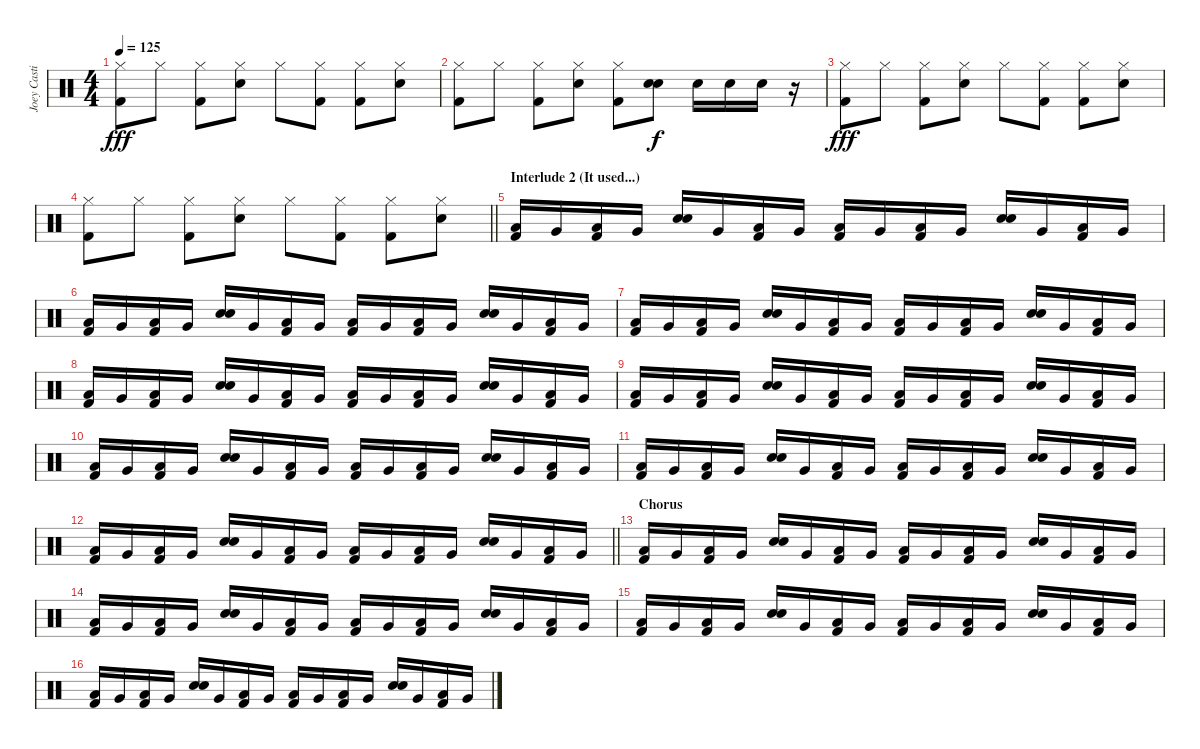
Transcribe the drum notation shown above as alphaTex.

\track ("Joey Castillo" "Joey Casti") {instrument percussion}
\staff {score}
\articulation defaults
\ts (4 4)
\tempo 125
\clef neutral
\ks c
("Hi-Hat (closed)" "Kick (hit) 2").8{dy fff} "Hi-Hat (closed)".8 ("Hi-Hat (closed)" "Kick (hit) 2").8 ("Hi-Hat (closed)" "Electric Snare (hit)").8 "Hi-Hat (closed)".8 ("Hi-Hat (closed)" "Kick (hit) 2").8 ("Hi-Hat (closed)" "Kick (hit) 2").8 ("Hi-Hat (closed)" "Electric Snare (hit)").8 |
("Hi-Hat (closed)" "Kick (hit) 2").8 "Hi-Hat (closed)".8 ("Hi-Hat (closed)" "Kick (hit) 2").8 ("Hi-Hat (closed)" "Electric Snare (hit)").8 ("Hi-Hat (closed)" "Kick (hit) 2").8 ("Electric Snare (hit)" "Electric Snare (hit)").8{bu 240 dy f} "Electric Snare (hit)".16 "Electric Snare (hit)".16 "Electric Snare (hit)".16 r.16 |
("Hi-Hat (closed)" "Kick (hit) 2").8{dy fff} "Hi-Hat (closed)".8 ("Hi-Hat (closed)" "Kick (hit) 2").8 ("Hi-Hat (closed)" "Electric Snare (hit)").8 "Hi-Hat (closed)".8 ("Hi-Hat (closed)" "Kick (hit) 2").8 ("Hi-Hat (closed)" "Kick (hit) 2").8 ("Hi-Hat (closed)" "Electric Snare (hit)").8 |
\barLineRight lightlight
("Hi-Hat (closed)" "Kick (hit) 2").8 "Hi-Hat (closed)".8 ("Hi-Hat (closed)" "Kick (hit) 2").8 ("Hi-Hat (closed)" "Electric Snare (hit)").8 "Hi-Hat (closed)".8 ("Hi-Hat (closed)" "Kick (hit) 2").8 ("Hi-Hat (closed)" "Kick (hit) 2").8 ("Hi-Hat (closed)" "Electric Snare (hit)").8 |
\section ("" "Interlude 2 (It used...)")
("Low Tom (hit)" "Kick (hit) 2").16 "Very Low Tom (hit)".16 ("Low Tom (hit)" "Kick (hit) 2").16 "Very Low Tom (hit)".16 ("Electric Snare (hit)" "Electric Snare (hit)").16{bu 480} "Very Low Tom (hit)".16 ("Low Tom (hit)" "Kick (hit) 2").16 "Very Low Tom (hit)".16 ("Low Tom (hit)" "Kick (hit) 2").16 "Very Low Tom (hit)".16 ("Low Tom (hit)" "Kick (hit) 2").16 "Very Low Tom (hit)".16 ("Electric Snare (hit)" "Electric Snare (hit)").16{bu 480} "Very Low Tom (hit)".16 ("Low Tom (hit)" "Kick (hit) 2").16 "Very Low Tom (hit)".16 |
("Low Tom (hit)" "Kick (hit) 2").16 "Very Low Tom (hit)".16 ("Low Tom (hit)" "Kick (hit) 2").16 "Very Low Tom (hit)".16 ("Electric Snare (hit)" "Electric Snare (hit)").16{bu 480} "Very Low Tom (hit)".16 ("Low Tom (hit)" "Kick (hit) 2").16 "Very Low Tom (hit)".16 ("Low Tom (hit)" "Kick (hit) 2").16 "Very Low Tom (hit)".16 ("Low Tom (hit)" "Kick (hit) 2").16 "Very Low Tom (hit)".16 ("Electric Snare (hit)" "Electric Snare (hit)").16{bu 480} "Very Low Tom (hit)".16 ("Low Tom (hit)" "Kick (hit) 2").16 "Very Low Tom (hit)".16 |
("Low Tom (hit)" "Kick (hit) 2").16 "Very Low Tom (hit)".16 ("Low Tom (hit)" "Kick (hit) 2").16 "Very Low Tom (hit)".16 ("Electric Snare (hit)" "Electric Snare (hit)").16{bu 480} "Very Low Tom (hit)".16 ("Low Tom (hit)" "Kick (hit) 2").16 "Very Low Tom (hit)".16 ("Low Tom (hit)" "Kick (hit) 2").16 "Very Low Tom (hit)".16 ("Low Tom (hit)" "Kick (hit) 2").16 "Very Low Tom (hit)".16 ("Electric Snare (hit)" "Electric Snare (hit)").16{bu 480} "Very Low Tom (hit)".16 ("Low Tom (hit)" "Kick (hit) 2").16 "Very Low Tom (hit)".16 |
("Low Tom (hit)" "Kick (hit) 2").16 "Very Low Tom (hit)".16 ("Low Tom (hit)" "Kick (hit) 2").16 "Very Low Tom (hit)".16 ("Electric Snare (hit)" "Electric Snare (hit)").16{bu 480} "Very Low Tom (hit)".16 ("Low Tom (hit)" "Kick (hit) 2").16 "Very Low Tom (hit)".16 ("Low Tom (hit)" "Kick (hit) 2").16 "Very Low Tom (hit)".16 ("Low Tom (hit)" "Kick (hit) 2").16 "Very Low Tom (hit)".16 ("Electric Snare (hit)" "Electric Snare (hit)").16{bu 480} "Very Low Tom (hit)".16 ("Low Tom (hit)" "Kick (hit) 2").16 "Very Low Tom (hit)".16 |
("Low Tom (hit)" "Kick (hit) 2").16 "Very Low Tom (hit)".16 ("Low Tom (hit)" "Kick (hit) 2").16 "Very Low Tom (hit)".16 ("Electric Snare (hit)" "Electric Snare (hit)").16{bu 480} "Very Low Tom (hit)".16 ("Low Tom (hit)" "Kick (hit) 2").16 "Very Low Tom (hit)".16 ("Low Tom (hit)" "Kick (hit) 2").16 "Very Low Tom (hit)".16 ("Low Tom (hit)" "Kick (hit) 2").16 "Very Low Tom (hit)".16 ("Electric Snare (hit)" "Electric Snare (hit)").16{bu 480} "Very Low Tom (hit)".16 ("Low Tom (hit)" "Kick (hit) 2").16 "Very Low Tom (hit)".16 |
("Low Tom (hit)" "Kick (hit) 2").16 "Very Low Tom (hit)".16 ("Low Tom (hit)" "Kick (hit) 2").16 "Very Low Tom (hit)".16 ("Electric Snare (hit)" "Electric Snare (hit)").16{bu 480} "Very Low Tom (hit)".16 ("Low Tom (hit)" "Kick (hit) 2").16 "Very Low Tom (hit)".16 ("Low Tom (hit)" "Kick (hit) 2").16 "Very Low Tom (hit)".16 ("Low Tom (hit)" "Kick (hit) 2").16 "Very Low Tom (hit)".16 ("Electric Snare (hit)" "Electric Snare (hit)").16{bu 480} "Very Low Tom (hit)".16 ("Low Tom (hit)" "Kick (hit) 2").16 "Very Low Tom (hit)".16 |
("Low Tom (hit)" "Kick (hit) 2").16 "Very Low Tom (hit)".16 ("Low Tom (hit)" "Kick (hit) 2").16 "Very Low Tom (hit)".16 ("Electric Snare (hit)" "Electric Snare (hit)").16{bu 480} "Very Low Tom (hit)".16 ("Low Tom (hit)" "Kick (hit) 2").16 "Very Low Tom (hit)".16 ("Low Tom (hit)" "Kick (hit) 2").16 "Very Low Tom (hit)".16 ("Low Tom (hit)" "Kick (hit) 2").16 "Very Low Tom (hit)".16 ("Electric Snare (hit)" "Electric Snare (hit)").16{bu 480} "Very Low Tom (hit)".16 ("Low Tom (hit)" "Kick (hit) 2").16 "Very Low Tom (hit)".16 |
\barLineRight lightlight
("Low Tom (hit)" "Kick (hit) 2").16 "Very Low Tom (hit)".16 ("Low Tom (hit)" "Kick (hit) 2").16 "Very Low Tom (hit)".16 ("Electric Snare (hit)" "Electric Snare (hit)").16{bu 480} "Very Low Tom (hit)".16 ("Low Tom (hit)" "Kick (hit) 2").16 "Very Low Tom (hit)".16 ("Low Tom (hit)" "Kick (hit) 2").16 "Very Low Tom (hit)".16 ("Low Tom (hit)" "Kick (hit) 2").16 "Very Low Tom (hit)".16 ("Electric Snare (hit)" "Electric Snare (hit)").16{bu 480} "Very Low Tom (hit)".16 ("Low Tom (hit)" "Kick (hit) 2").16 "Very Low Tom (hit)".16 |
\section ("" "Chorus")
("Low Tom (hit)" "Kick (hit) 2").16 "Very Low Tom (hit)".16 ("Low Tom (hit)" "Kick (hit) 2").16 "Very Low Tom (hit)".16 ("Electric Snare (hit)" "Electric Snare (hit)").16{bu 480} "Very Low Tom (hit)".16 ("Low Tom (hit)" "Kick (hit) 2").16 "Very Low Tom (hit)".16 ("Low Tom (hit)" "Kick (hit) 2").16 "Very Low Tom (hit)".16 ("Low Tom (hit)" "Kick (hit) 2").16 "Very Low Tom (hit)".16 ("Electric Snare (hit)" "Electric Snare (hit)").16{bu 480} "Very Low Tom (hit)".16 ("Low Tom (hit)" "Kick (hit) 2").16 "Very Low Tom (hit)".16 |
("Low Tom (hit)" "Kick (hit) 2").16 "Very Low Tom (hit)".16 ("Low Tom (hit)" "Kick (hit) 2").16 "Very Low Tom (hit)".16 ("Electric Snare (hit)" "Electric Snare (hit)").16{bu 480} "Very Low Tom (hit)".16 ("Low Tom (hit)" "Kick (hit) 2").16 "Very Low Tom (hit)".16 ("Low Tom (hit)" "Kick (hit) 2").16 "Very Low Tom (hit)".16 ("Low Tom (hit)" "Kick (hit) 2").16 "Very Low Tom (hit)".16 ("Electric Snare (hit)" "Electric Snare (hit)").16{bu 480} "Very Low Tom (hit)".16 ("Low Tom (hit)" "Kick (hit) 2").16 "Very Low Tom (hit)".16 |
("Low Tom (hit)" "Kick (hit) 2").16 "Very Low Tom (hit)".16 ("Low Tom (hit)" "Kick (hit) 2").16 "Very Low Tom (hit)".16 ("Electric Snare (hit)" "Electric Snare (hit)").16{bu 480} "Very Low Tom (hit)".16 ("Low Tom (hit)" "Kick (hit) 2").16 "Very Low Tom (hit)".16 ("Low Tom (hit)" "Kick (hit) 2").16 "Very Low Tom (hit)".16 ("Low Tom (hit)" "Kick (hit) 2").16 "Very Low Tom (hit)".16 ("Electric Snare (hit)" "Electric Snare (hit)").16{bu 480} "Very Low Tom (hit)".16 ("Low Tom (hit)" "Kick (hit) 2").16 "Very Low Tom (hit)".16 |
("Low Tom (hit)" "Kick (hit) 2").16 "Very Low Tom (hit)".16 ("Low Tom (hit)" "Kick (hit) 2").16 "Very Low Tom (hit)".16 ("Electric Snare (hit)" "Electric Snare (hit)").16{bu 480} "Very Low Tom (hit)".16 ("Low Tom (hit)" "Kick (hit) 2").16 "Very Low Tom (hit)".16 ("Low Tom (hit)" "Kick (hit) 2").16 "Very Low Tom (hit)".16 ("Low Tom (hit)" "Kick (hit) 2").16 "Very Low Tom (hit)".16 ("Electric Snare (hit)" "Electric Snare (hit)").16{bu 480} "Very Low Tom (hit)".16 ("Low Tom (hit)" "Kick (hit) 2").16 "Very Low Tom (hit)".16
